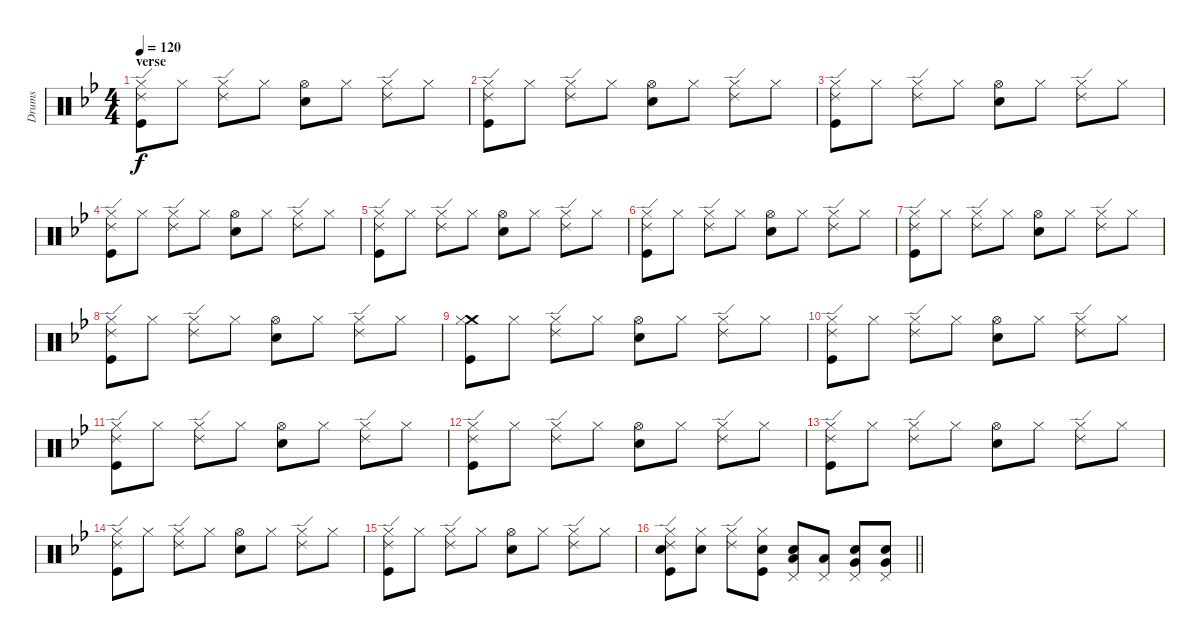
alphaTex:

\track ("Drums" "Drums") {instrument percussion}
\staff {score}
\articulation defaults
\ts (4 4)
\section ("" "verse ")
\tempo 120
\clef neutral
\ks gminor
("Hi-Hat (closed)" "Ride (edge) 2" "Kick (hit)").8{dy f} "Hi-Hat (closed)".8 ("Hi-Hat (closed)" "Ride (edge) 2").8 "Hi-Hat (closed)".8 ("Hi-Hat (open)" "Electric Snare (hit)").8 "Hi-Hat (closed)".8 ("Hi-Hat (closed)" "Ride (edge) 2").8 "Hi-Hat (closed)".8 |
("Hi-Hat (closed)" "Ride (edge) 2" "Kick (hit)").8 "Hi-Hat (closed)".8 ("Hi-Hat (closed)" "Ride (edge) 2").8 "Hi-Hat (closed)".8 ("Hi-Hat (open)" "Electric Snare (hit)").8 "Hi-Hat (closed)".8 ("Hi-Hat (closed)" "Ride (edge) 2").8 "Hi-Hat (closed)".8 |
("Hi-Hat (closed)" "Ride (edge) 2" "Kick (hit)").8 "Hi-Hat (closed)".8 ("Hi-Hat (closed)" "Ride (edge) 2").8 "Hi-Hat (closed)".8 ("Hi-Hat (open)" "Electric Snare (hit)").8 "Hi-Hat (closed)".8 ("Hi-Hat (closed)" "Ride (edge) 2").8 "Hi-Hat (closed)".8 |
("Hi-Hat (closed)" "Ride (edge) 2" "Kick (hit)").8 "Hi-Hat (closed)".8 ("Hi-Hat (closed)" "Ride (edge) 2").8 "Hi-Hat (closed)".8 ("Hi-Hat (open)" "Electric Snare (hit)").8 "Hi-Hat (closed)".8 ("Hi-Hat (closed)" "Ride (edge) 2").8 "Hi-Hat (closed)".8 |
("Hi-Hat (closed)" "Ride (edge) 2" "Kick (hit)").8 "Hi-Hat (closed)".8 ("Hi-Hat (closed)" "Ride (edge) 2").8 "Hi-Hat (closed)".8 ("Hi-Hat (open)" "Electric Snare (hit)").8 "Hi-Hat (closed)".8 ("Hi-Hat (closed)" "Ride (edge) 2").8 "Hi-Hat (closed)".8 |
("Hi-Hat (closed)" "Ride (edge) 2" "Kick (hit)").8 "Hi-Hat (closed)".8 ("Hi-Hat (closed)" "Ride (edge) 2").8 "Hi-Hat (closed)".8 ("Hi-Hat (open)" "Electric Snare (hit)").8 "Hi-Hat (closed)".8 ("Hi-Hat (closed)" "Ride (edge) 2").8 "Hi-Hat (closed)".8 |
("Hi-Hat (closed)" "Ride (edge) 2" "Kick (hit)").8 "Hi-Hat (closed)".8 ("Hi-Hat (closed)" "Ride (edge) 2").8 "Hi-Hat (closed)".8 ("Hi-Hat (open)" "Electric Snare (hit)").8 "Hi-Hat (closed)".8 ("Hi-Hat (closed)" "Ride (edge) 2").8 "Hi-Hat (closed)".8 |
("Hi-Hat (closed)" "Ride (edge) 2" "Kick (hit)").8 "Hi-Hat (closed)".8 ("Hi-Hat (closed)" "Ride (edge) 2").8 "Hi-Hat (closed)".8 ("Hi-Hat (open)" "Electric Snare (hit)").8 "Hi-Hat (closed)".8 ("Hi-Hat (closed)" "Ride (edge) 2").8 "Hi-Hat (closed)".8 |
("Crash medium (hit)" "Hi-Hat (closed)" "Kick (hit)").8 "Hi-Hat (closed)".8 ("Hi-Hat (closed)" "Ride (edge) 2").8 "Hi-Hat (closed)".8 ("Hi-Hat (open)" "Electric Snare (hit)").8 "Hi-Hat (closed)".8 ("Hi-Hat (closed)" "Ride (edge) 2").8 "Hi-Hat (closed)".8 |
("Hi-Hat (closed)" "Ride (edge) 2" "Kick (hit)").8 "Hi-Hat (closed)".8 ("Hi-Hat (closed)" "Ride (edge) 2").8 "Hi-Hat (closed)".8 ("Hi-Hat (open)" "Electric Snare (hit)").8 "Hi-Hat (closed)".8 ("Hi-Hat (closed)" "Ride (edge) 2").8 "Hi-Hat (closed)".8 |
("Hi-Hat (closed)" "Ride (edge) 2" "Kick (hit)").8 "Hi-Hat (closed)".8 ("Hi-Hat (closed)" "Ride (edge) 2").8 "Hi-Hat (closed)".8 ("Hi-Hat (open)" "Electric Snare (hit)").8 "Hi-Hat (closed)".8 ("Hi-Hat (closed)" "Ride (edge) 2").8 "Hi-Hat (closed)".8 |
("Hi-Hat (closed)" "Ride (edge) 2" "Kick (hit)").8 "Hi-Hat (closed)".8 ("Hi-Hat (closed)" "Ride (edge) 2").8 "Hi-Hat (closed)".8 ("Hi-Hat (open)" "Electric Snare (hit)").8 "Hi-Hat (closed)".8 ("Hi-Hat (closed)" "Ride (edge) 2").8 "Hi-Hat (closed)".8 |
("Hi-Hat (closed)" "Ride (edge) 2" "Kick (hit)").8 "Hi-Hat (closed)".8 ("Hi-Hat (closed)" "Ride (edge) 2").8 "Hi-Hat (closed)".8 ("Hi-Hat (open)" "Electric Snare (hit)").8 "Hi-Hat (closed)".8 ("Hi-Hat (closed)" "Ride (edge) 2").8 "Hi-Hat (closed)".8 |
("Hi-Hat (closed)" "Ride (edge) 2" "Kick (hit)").8 "Hi-Hat (closed)".8 ("Hi-Hat (closed)" "Ride (edge) 2").8 "Hi-Hat (closed)".8 ("Hi-Hat (open)" "Electric Snare (hit)").8 "Hi-Hat (closed)".8 ("Hi-Hat (closed)" "Ride (edge) 2").8 "Hi-Hat (closed)".8 |
("Hi-Hat (closed)" "Ride (edge) 2" "Kick (hit)").8 "Hi-Hat (closed)".8 ("Hi-Hat (closed)" "Ride (edge) 2").8 "Hi-Hat (closed)".8 ("Hi-Hat (open)" "Electric Snare (hit)").8 "Hi-Hat (closed)".8 ("Hi-Hat (closed)" "Ride (edge) 2").8 "Hi-Hat (closed)".8 |
\barLineRight lightlight
("Hi-Hat (closed)" "Ride (edge) 2" "Electric Snare (hit)" "Kick (hit)").8 ("Hi-Hat (closed)" "Electric Snare (hit)").8 ("Hi-Hat (closed)" "Ride (edge) 2").8 ("Hi-Hat (closed)" "Electric Snare (hit)" "Kick (hit)").8 ("Pedal Hi-Hat (hit)" "Low Tom (hit)" "Electric Snare (hit)").8 ("Pedal Hi-Hat (hit)" "Low Tom (hit)").8 ("Pedal Hi-Hat (hit)" "Very Low Tom (hit)" "Electric Snare (hit)").8 ("Pedal Hi-Hat (hit)" "Very Low Tom (hit)" "Electric Snare (hit)").8
